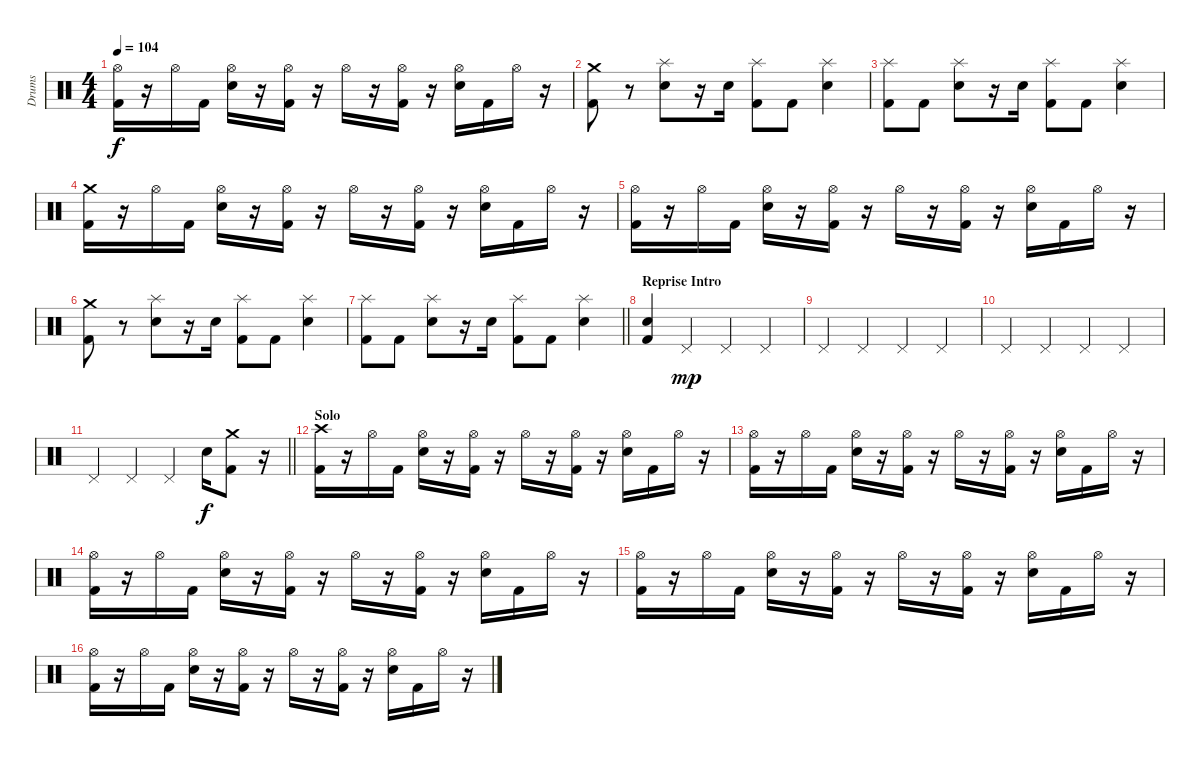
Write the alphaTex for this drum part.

\track ("Drums" "Drums") {instrument percussion}
\staff {score}
\articulation defaults
\ts (4 4)
\tempo 104
\clef neutral
\ks c
("Hi-Hat (open)" "Kick (hit) 2").16{dy f} r.16 "Hi-Hat (open)".16 "Kick (hit) 2".16 ("Hi-Hat (open)" "Snare (hit) 2").16 r.16 ("Hi-Hat (open)" "Kick (hit) 2").16 r.16 "Hi-Hat (open)".16 r.16 ("Hi-Hat (open)" "Kick (hit) 2").16 r.16 ("Hi-Hat (open)" "Snare (hit) 2").16 "Kick (hit) 2".16 "Hi-Hat (open)".16 r.16 |
("Crash medium (hit)" "Kick (hit) 2").8 r.8 ("Splash (hit)" "Snare (hit) 2").8 r.16 "Snare (hit) 2".16 ("Splash (hit)" "Kick (hit) 2").8 "Kick (hit) 2".8 ("Splash (hit)" "Snare (hit) 2").4 |
("Splash (hit)" "Kick (hit) 2").8 "Kick (hit) 2".8 ("Splash (hit)" "Snare (hit) 2").8 r.16 "Snare (hit) 2".16 ("Splash (hit)" "Kick (hit) 2").8 "Kick (hit) 2".8 ("Splash (hit)" "Snare (hit) 2").4 |
("Crash medium (hit)" "Kick (hit) 2").16 r.16 "Hi-Hat (open)".16 "Kick (hit) 2".16 ("Hi-Hat (open)" "Snare (hit) 2").16 r.16 ("Hi-Hat (open)" "Kick (hit) 2").16 r.16 "Hi-Hat (open)".16 r.16 ("Hi-Hat (open)" "Kick (hit) 2").16 r.16 ("Hi-Hat (open)" "Snare (hit) 2").16 "Kick (hit) 2".16 "Hi-Hat (open)".16 r.16 |
("Hi-Hat (open)" "Kick (hit) 2").16 r.16 "Hi-Hat (open)".16 "Kick (hit) 2".16 ("Hi-Hat (open)" "Snare (hit) 2").16 r.16 ("Hi-Hat (open)" "Kick (hit) 2").16 r.16 "Hi-Hat (open)".16 r.16 ("Hi-Hat (open)" "Kick (hit) 2").16 r.16 ("Hi-Hat (open)" "Snare (hit) 2").16 "Kick (hit) 2".16 "Hi-Hat (open)".16 r.16 |
("Crash medium (hit)" "Kick (hit) 2").8 r.8 ("Splash (hit)" "Snare (hit) 2").8 r.16 "Snare (hit) 2".16 ("Splash (hit)" "Kick (hit) 2").8 "Kick (hit) 2".8 ("Splash (hit)" "Snare (hit) 2").4 |
\barLineRight lightlight
("Splash (hit)" "Kick (hit) 2").8 "Kick (hit) 2".8 ("Splash (hit)" "Snare (hit) 2").8 r.16 "Snare (hit) 2".16 ("Splash (hit)" "Kick (hit) 2").8 "Kick (hit) 2".8 ("Splash (hit)" "Snare (hit) 2").4 |
\section ("" "Reprise Intro")
("Snare (hit) 2" "Kick (hit) 2").4 "Pedal Hi-Hat (hit)".4{dy mp} "Pedal Hi-Hat (hit)".4 "Pedal Hi-Hat (hit)".4 |
"Pedal Hi-Hat (hit)".4 "Pedal Hi-Hat (hit)".4 "Pedal Hi-Hat (hit)".4 "Pedal Hi-Hat (hit)".4 |
"Pedal Hi-Hat (hit)".4 "Pedal Hi-Hat (hit)".4 "Pedal Hi-Hat (hit)".4 "Pedal Hi-Hat (hit)".4 |
\barLineRight lightlight "Pedal Hi-Hat (hit)".4 "Pedal Hi-Hat (hit)".4 "Pedal Hi-Hat (hit)".4 "Snare (hit) 2".16{dy f}
("Crash medium (hit)" "Kick (hit) 2").8 r.16 |
\section ("" "Solo")
("Crash high (hit)" "Kick (hit) 2").16 r.16 "Hi-Hat (open)".16 "Kick (hit) 2".16 ("Hi-Hat (open)" "Snare (hit) 2").16 r.16 ("Hi-Hat (open)" "Kick (hit) 2").16 r.16 "Hi-Hat (open)".16 r.16 ("Hi-Hat (open)" "Kick (hit) 2").16 r.16 ("Hi-Hat (open)" "Snare (hit) 2").16 "Kick (hit) 2".16 "Hi-Hat (open)".16 r.16 |
("Hi-Hat (open)" "Kick (hit) 2").16 r.16 "Hi-Hat (open)".16 "Kick (hit) 2".16 ("Hi-Hat (open)" "Snare (hit) 2").16 r.16 ("Hi-Hat (open)" "Kick (hit) 2").16 r.16 "Hi-Hat (open)".16 r.16 ("Hi-Hat (open)" "Kick (hit) 2").16 r.16 ("Hi-Hat (open)" "Snare (hit) 2").16 "Kick (hit) 2".16 "Hi-Hat (open)".16 r.16 |
("Hi-Hat (open)" "Kick (hit) 2").16 r.16 "Hi-Hat (open)".16 "Kick (hit) 2".16 ("Hi-Hat (open)" "Snare (hit) 2").16 r.16 ("Hi-Hat (open)" "Kick (hit) 2").16 r.16 "Hi-Hat (open)".16 r.16 ("Hi-Hat (open)" "Kick (hit) 2").16 r.16 ("Hi-Hat (open)" "Snare (hit) 2").16 "Kick (hit) 2".16 "Hi-Hat (open)".16 r.16 |
("Hi-Hat (open)" "Kick (hit) 2").16 r.16 "Hi-Hat (open)".16 "Kick (hit) 2".16 ("Hi-Hat (open)" "Snare (hit) 2").16 r.16 ("Hi-Hat (open)" "Kick (hit) 2").16 r.16 "Hi-Hat (open)".16 r.16 ("Hi-Hat (open)" "Kick (hit) 2").16 r.16 ("Hi-Hat (open)" "Snare (hit) 2").16 "Kick (hit) 2".16 "Hi-Hat (open)".16 r.16 |
("Hi-Hat (open)" "Kick (hit) 2").16 r.16 "Hi-Hat (open)".16 "Kick (hit) 2".16 ("Hi-Hat (open)" "Snare (hit) 2").16 r.16 ("Hi-Hat (open)" "Kick (hit) 2").16 r.16 "Hi-Hat (open)".16 r.16 ("Hi-Hat (open)" "Kick (hit) 2").16 r.16 ("Hi-Hat (open)" "Snare (hit) 2").16 "Kick (hit) 2".16 "Hi-Hat (open)".16 r.16
